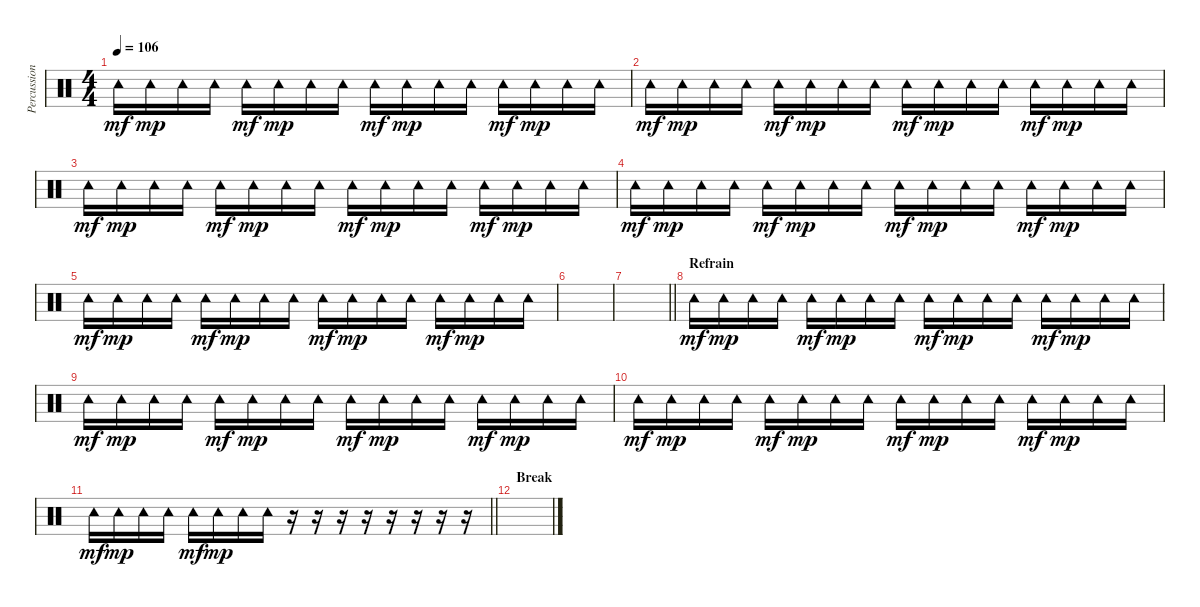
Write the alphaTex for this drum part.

\track ("Percussion (Tre Cool)" "Percussion") {instrument percussion}
\staff {score}
\articulation defaults
\ts (4 4)
\tempo 106
\clef neutral
\ks c "Tambourine (hit)".16{dy mf} "Tambourine (hit)".16{dy mp} "Tambourine (hit)".16 "Tambourine (hit)".16 "Tambourine (hit)".16{dy mf} "Tambourine (hit)".16{dy mp} "Tambourine (hit)".16 "Tambourine (hit)".16 "Tambourine (hit)".16{dy mf} "Tambourine (hit)".16{dy mp} "Tambourine (hit)".16 "Tambourine (hit)".16 "Tambourine (hit)".16{dy mf} "Tambourine (hit)".16{dy mp} "Tambourine (hit)".16 "Tambourine (hit)".16
|
"Tambourine (hit)".16{dy mf} "Tambourine (hit)".16{dy mp} "Tambourine (hit)".16 "Tambourine (hit)".16 "Tambourine (hit)".16{dy mf} "Tambourine (hit)".16{dy mp} "Tambourine (hit)".16 "Tambourine (hit)".16 "Tambourine (hit)".16{dy mf} "Tambourine (hit)".16{dy mp} "Tambourine (hit)".16 "Tambourine (hit)".16 "Tambourine (hit)".16{dy mf} "Tambourine (hit)".16{dy mp} "Tambourine (hit)".16 "Tambourine (hit)".16 |
"Tambourine (hit)".16{dy mf} "Tambourine (hit)".16{dy mp} "Tambourine (hit)".16 "Tambourine (hit)".16 "Tambourine (hit)".16{dy mf} "Tambourine (hit)".16{dy mp} "Tambourine (hit)".16 "Tambourine (hit)".16 "Tambourine (hit)".16{dy mf} "Tambourine (hit)".16{dy mp} "Tambourine (hit)".16 "Tambourine (hit)".16 "Tambourine (hit)".16{dy mf} "Tambourine (hit)".16{dy mp} "Tambourine (hit)".16 "Tambourine (hit)".16 |
"Tambourine (hit)".16{dy mf} "Tambourine (hit)".16{dy mp} "Tambourine (hit)".16 "Tambourine (hit)".16 "Tambourine (hit)".16{dy mf} "Tambourine (hit)".16{dy mp} "Tambourine (hit)".16 "Tambourine (hit)".16 "Tambourine (hit)".16{dy mf} "Tambourine (hit)".16{dy mp} "Tambourine (hit)".16 "Tambourine (hit)".16 "Tambourine (hit)".16{dy mf} "Tambourine (hit)".16{dy mp} "Tambourine (hit)".16 "Tambourine (hit)".16 |
"Tambourine (hit)".16{dy mf} "Tambourine (hit)".16{dy mp} "Tambourine (hit)".16 "Tambourine (hit)".16 "Tambourine (hit)".16{dy mf} "Tambourine (hit)".16{dy mp} "Tambourine (hit)".16 "Tambourine (hit)".16 "Tambourine (hit)".16{dy mf} "Tambourine (hit)".16{dy mp} "Tambourine (hit)".16 "Tambourine (hit)".16 "Tambourine (hit)".16{dy mf} "Tambourine (hit)".16{dy mp} "Tambourine (hit)".16 "Tambourine (hit)".16 |
|
\barLineRight lightlight
|
\section ("" "Refrain")
"Tambourine (hit)".16{dy mf} "Tambourine (hit)".16{dy mp} "Tambourine (hit)".16 "Tambourine (hit)".16 "Tambourine (hit)".16{dy mf} "Tambourine (hit)".16{dy mp} "Tambourine (hit)".16 "Tambourine (hit)".16 "Tambourine (hit)".16{dy mf} "Tambourine (hit)".16{dy mp} "Tambourine (hit)".16 "Tambourine (hit)".16 "Tambourine (hit)".16{dy mf} "Tambourine (hit)".16{dy mp} "Tambourine (hit)".16 "Tambourine (hit)".16 |
"Tambourine (hit)".16{dy mf} "Tambourine (hit)".16{dy mp} "Tambourine (hit)".16 "Tambourine (hit)".16 "Tambourine (hit)".16{dy mf} "Tambourine (hit)".16{dy mp} "Tambourine (hit)".16 "Tambourine (hit)".16 "Tambourine (hit)".16{dy mf} "Tambourine (hit)".16{dy mp} "Tambourine (hit)".16 "Tambourine (hit)".16 "Tambourine (hit)".16{dy mf} "Tambourine (hit)".16{dy mp} "Tambourine (hit)".16 "Tambourine (hit)".16 |
"Tambourine (hit)".16{dy mf} "Tambourine (hit)".16{dy mp} "Tambourine (hit)".16 "Tambourine (hit)".16 "Tambourine (hit)".16{dy mf} "Tambourine (hit)".16{dy mp} "Tambourine (hit)".16 "Tambourine (hit)".16 "Tambourine (hit)".16{dy mf} "Tambourine (hit)".16{dy mp} "Tambourine (hit)".16 "Tambourine (hit)".16 "Tambourine (hit)".16{dy mf} "Tambourine (hit)".16{dy mp} "Tambourine (hit)".16 "Tambourine (hit)".16 |
\barLineRight lightlight "Tambourine (hit)".16{dy mf} "Tambourine (hit)".16{dy mp} "Tambourine (hit)".16 "Tambourine (hit)".16 "Tambourine (hit)".16{dy mf} "Tambourine (hit)".16{dy mp} "Tambourine (hit)".16 "Tambourine (hit)".16
r.16 r.16 r.16 r.16 r.16 r.16 r.16 r.16 |
\section ("" "Break")
